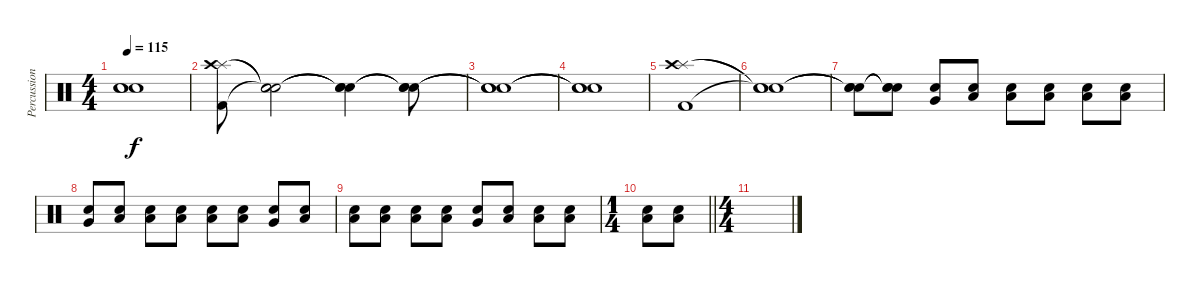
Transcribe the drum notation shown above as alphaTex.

\track ("Percussion" "Percussion") {instrument percussion}
\staff {score}
\articulation defaults
\ts (4 4)
\tempo 115
\clef neutral
\ks c
("Snare (hit)"{t} "Snare (hit)"{t} "Snare (hit)"{t}).1{dy f} |
("Splash (hit)" "Crash high (hit)" "Kick (hit) 2").8 ("Snare (hit)"{t} "Snare (hit)"{t} "Snare (hit)"{t}).2 ("Snare (hit)"{t} "Snare (hit)"{t} "Snare (hit)"{t}).4 ("Snare (hit)"{t} "Snare (hit)"{t} "Snare (hit)"{t}).8 |
("Snare (hit)"{t} "Snare (hit)"{t} "Snare (hit)"{t}).1 |
("Snare (hit)"{t} "Snare (hit)"{t} "Snare (hit)"{t}).1 |
("Splash (hit)" "Crash high (hit)" "Kick (hit) 2").1 |
("Snare (hit)"{t} "Snare (hit)"{t} "Snare (hit)"{t}).1 |
("Snare (hit)"{t} "Snare (hit)"{t} "Snare (hit)"{t}).8 ("Snare (hit)"{t} "Snare (hit)"{t} "Snare (hit)"{t}).8{volume 6} ("Very Low Tom (hit)" "Electric Snare (hit)").8{volume 10} ("Low Floor Tom (hit)" "Electric Snare (hit)").8 ("Low Floor Tom (hit)" "Electric Snare (hit)").8 ("Low Floor Tom (hit)" "Electric Snare (hit)").8 ("Low Floor Tom (hit)" "Electric Snare (hit)").8 ("Low Floor Tom (hit)" "Electric Snare (hit)").8 |
("Very Low Tom (hit)" "Electric Snare (hit)").8 ("Low Floor Tom (hit)" "Electric Snare (hit)").8 ("Low Floor Tom (hit)" "Electric Snare (hit)").8 ("Low Floor Tom (hit)" "Electric Snare (hit)").8{volume 13} ("Low Floor Tom (hit)" "Electric Snare (hit)").8 ("Low Floor Tom (hit)" "Electric Snare (hit)").8 ("Very Low Tom (hit)" "Electric Snare (hit)").8 ("Low Floor Tom (hit)" "Electric Snare (hit)").8 |
("Low Floor Tom (hit)" "Electric Snare (hit)").8 ("Low Floor Tom (hit)" "Electric Snare (hit)").8 ("Low Floor Tom (hit)" "Electric Snare (hit)").8 ("Low Floor Tom (hit)" "Electric Snare (hit)").8 ("Very Low Tom (hit)" "Electric Snare (hit)").8 ("Low Floor Tom (hit)" "Electric Snare (hit)").8 ("Low Floor Tom (hit)" "Electric Snare (hit)").8 ("Low Floor Tom (hit)" "Electric Snare (hit)").8 |
\ts (1 4)
\barLineRight lightlight
("Low Floor Tom (hit)" "Electric Snare (hit)").8 ("Low Floor Tom (hit)" "Electric Snare (hit)").8 |
\ts (4 4)
